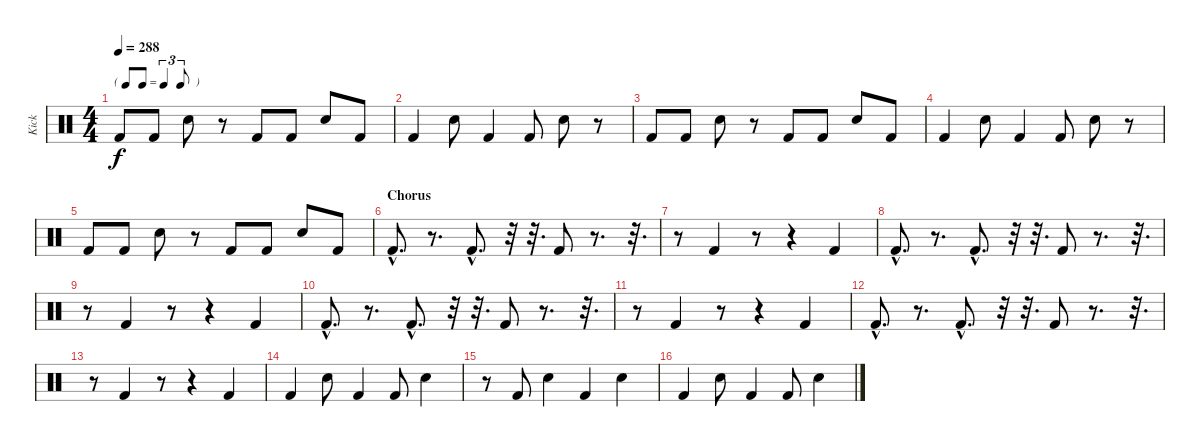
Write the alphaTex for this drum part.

\track ("Kick" "Kick") {instrument percussion}
\staff {score}
\articulation defaults
\ts (4 4)
\tf triplet8th
\tempo 288
\clef neutral
\ks c "Kick (hit) 2".8{dy f} "Kick (hit) 2".8 "Snare (hit) 2".8
r.8 "Kick (hit) 2".8 "Kick (hit) 2".8 "Snare (hit) 2".8 "Kick (hit) 2".8 |
"Kick (hit) 2".4 "Snare (hit) 2".8 "Kick (hit) 2".4 "Kick (hit) 2".8 "Snare (hit) 2".8 r.8 |
"Kick (hit) 2".8 "Kick (hit) 2".8 "Snare (hit) 2".8 r.8 "Kick (hit) 2".8 "Kick (hit) 2".8 "Snare (hit) 2".8 "Kick (hit) 2".8 |
"Kick (hit) 2".4 "Snare (hit) 2".8 "Kick (hit) 2".4 "Kick (hit) 2".8 "Snare (hit) 2".8 r.8 |
"Kick (hit) 2".8 "Kick (hit) 2".8 "Snare (hit) 2".8 r.8 "Kick (hit) 2".8 "Kick (hit) 2".8 "Snare (hit) 2".8 "Kick (hit) 2".8 |
\section ("" "Chorus")
"Kick (hit) 2"{hac}.8{d} r.8{d} "Kick (hit) 2"{hac}.8{d} r.32 r.32{d} "Kick (hit) 2".8 r.8{d} r.32{d} |
r.8 "Kick (hit) 2".4 r.8 r.4 "Kick (hit) 2".4 |
"Kick (hit) 2"{hac}.8{d} r.8{d} "Kick (hit) 2"{hac}.8{d} r.32 r.32{d} "Kick (hit) 2".8 r.8{d} r.32{d} |
r.8 "Kick (hit) 2".4 r.8 r.4 "Kick (hit) 2".4 |
"Kick (hit) 2"{hac}.8{d} r.8{d} "Kick (hit) 2"{hac}.8{d} r.32 r.32{d} "Kick (hit) 2".8 r.8{d} r.32{d} |
r.8 "Kick (hit) 2".4 r.8 r.4 "Kick (hit) 2".4 |
"Kick (hit) 2"{hac}.8{d} r.8{d} "Kick (hit) 2"{hac}.8{d} r.32 r.32{d} "Kick (hit) 2".8 r.8{d} r.32{d} |
r.8 "Kick (hit) 2".4 r.8 r.4 "Kick (hit) 2".4 |
"Kick (hit) 2".4 "Snare (hit) 2".8 "Kick (hit) 2".4 "Kick (hit) 2".8 "Snare (hit) 2".4 |
r.8 "Kick (hit) 2".8 "Snare (hit) 2".4 "Kick (hit) 2".4 "Snare (hit) 2".4 |
"Kick (hit) 2".4 "Snare (hit) 2".8 "Kick (hit) 2".4 "Kick (hit) 2".8 "Snare (hit) 2".4
